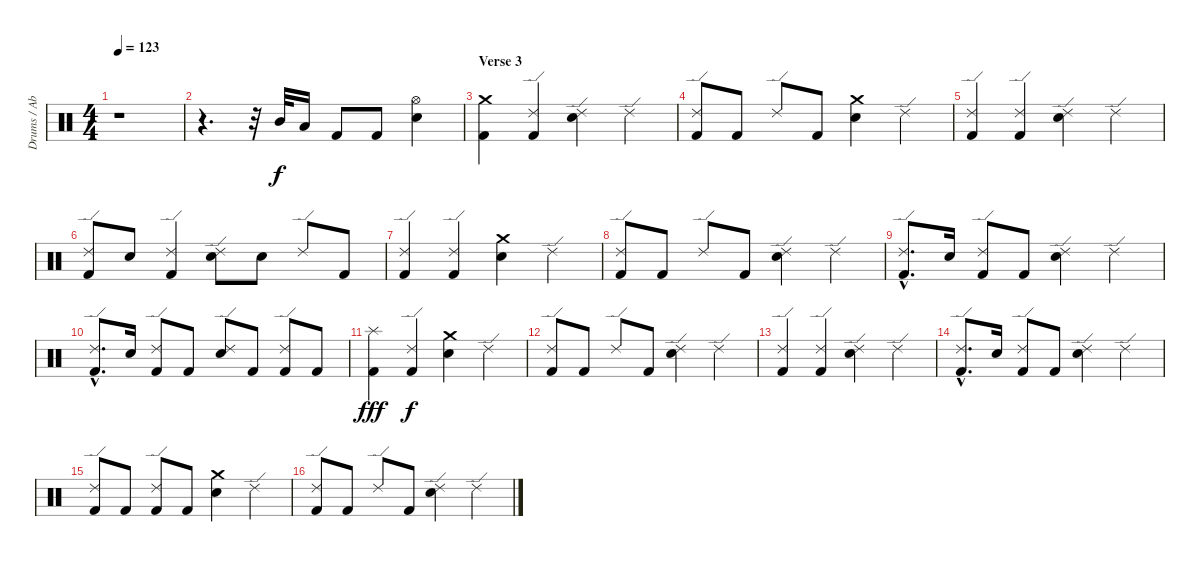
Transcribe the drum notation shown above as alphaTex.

\track ("Drums / Abe Cunningham" "Drums / Ab") {instrument percussion}
\staff {score}
\articulation defaults
\ts (4 4)
\tempo 123
\clef neutral
\ks c
r.1{dy mf} |
r.4{d} r.32 "Mid Tom (hit)".32{dy f} "Low Tom (hit)".16 "Kick (hit) 2".8 "Kick (hit) 2".8 ("Hi-Hat (open)" "Electric Snare (hit)").4 |
\section ("" "Verse 3")
("Crash medium (hit)" "Kick (hit) 2").4 ("Ride (edge) 2" "Kick (hit) 2").4 ("Ride (edge) 2" "Electric Snare (hit)").4 "Ride (edge) 2".4 |
("Ride (edge) 2" "Kick (hit) 2").8 "Kick (hit) 2".8 "Ride (edge) 2".8 "Kick (hit) 2".8 ("Crash medium (hit)" "Electric Snare (hit)").4 "Ride (edge) 2".4 |
("Ride (edge) 2" "Kick (hit) 2").4 ("Ride (edge) 2" "Kick (hit) 2").4 ("Ride (edge) 2" "Electric Snare (hit)").4 "Ride (edge) 2".4 |
("Ride (edge) 2" "Kick (hit) 2").8 "Electric Snare (hit)".8 ("Ride (edge) 2" "Kick (hit) 2").4 ("Ride (edge) 2" "Electric Snare (hit)").8 "Electric Snare (hit)".8 "Ride (edge) 2".8 "Kick (hit) 2".8 |
("Ride (edge) 2" "Kick (hit) 2").4 ("Ride (edge) 2" "Kick (hit) 2").4 ("Crash medium (hit)" "Electric Snare (hit)").4 "Ride (edge) 2".4 |
("Ride (edge) 2" "Kick (hit) 2").8 "Kick (hit) 2".8 "Ride (edge) 2".8 "Kick (hit) 2".8 ("Ride (edge) 2" "Electric Snare (hit)").4 "Ride (edge) 2".4 |
("Ride (edge) 2"{hac} "Kick (hit) 2"{hac}).8{d} "Electric Snare (hit)".16 ("Ride (edge) 2" "Kick (hit) 2").8 "Kick (hit) 2".8 ("Ride (edge) 2" "Electric Snare (hit)").4 "Ride (edge) 2".4 |
("Ride (edge) 2"{hac} "Kick (hit) 2"{hac}).8{d} "Electric Snare (hit)".16 ("Ride (edge) 2" "Kick (hit) 2").8 "Kick (hit) 2".8 ("Ride (edge) 2" "Electric Snare (hit)").8 "Kick (hit) 2".8 ("Ride (edge) 2" "Kick (hit) 2").8 "Kick (hit) 2".8 |
("Splash (hit)" "Kick (hit) 2").4{dy fff} ("Ride (edge) 2" "Kick (hit) 2").4{dy f} ("Crash medium (hit)" "Electric Snare (hit)").4 "Ride (edge) 2".4 |
("Ride (edge) 2" "Kick (hit) 2").8 "Kick (hit) 2".8 "Ride (edge) 2".8 "Kick (hit) 2".8 ("Ride (edge) 2" "Electric Snare (hit)").4 "Ride (edge) 2".4 |
("Ride (edge) 2" "Kick (hit) 2").4 ("Ride (edge) 2" "Kick (hit) 2").4 ("Ride (edge) 2" "Electric Snare (hit)").4 "Ride (edge) 2".4 |
("Ride (edge) 2"{hac} "Kick (hit) 2"{hac}).8{d} "Electric Snare (hit)".16 ("Ride (edge) 2" "Kick (hit) 2").8 "Kick (hit) 2".8 ("Ride (edge) 2" "Electric Snare (hit)").4 "Ride (edge) 2".4 |
("Ride (edge) 2" "Kick (hit) 2").8 "Kick (hit) 2".8 ("Ride (edge) 2" "Kick (hit) 2").8 "Kick (hit) 2".8 ("Crash medium (hit)" "Electric Snare (hit)").4 "Ride (edge) 2".4 |
("Ride (edge) 2" "Kick (hit) 2").8 "Kick (hit) 2".8 "Ride (edge) 2".8 "Kick (hit) 2".8 ("Ride (edge) 2" "Electric Snare (hit)").4 "Ride (edge) 2".4
